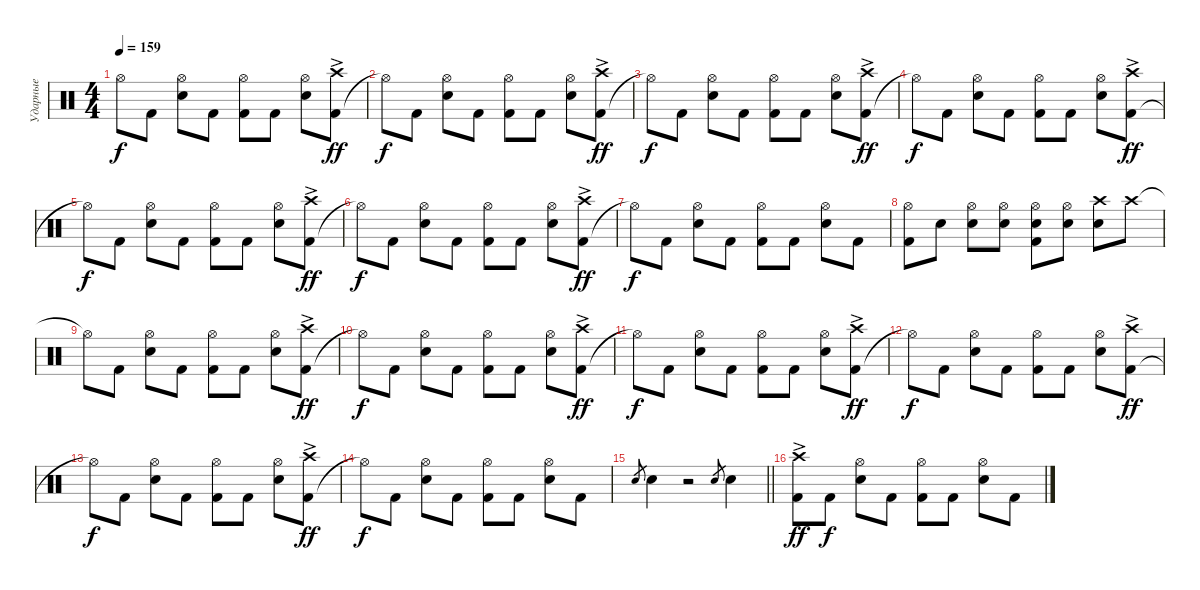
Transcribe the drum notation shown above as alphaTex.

\track ("Ударные" "Ударные") {instrument percussion}
\staff {score}
\articulation defaults
\ts (4 4)
\tempo 159
\clef neutral
\ks c "Hi-Hat (open)"{t}.8{dy f} "Kick (hit) 2".8
("Snare (hit) 2" "Hi-Hat (open)").8 "Kick (hit) 2".8 ("Kick (hit) 2" "Hi-Hat (open)").8 "Kick (hit) 2".8 ("Snare (hit) 2" "Hi-Hat (open)").8 ("Kick (hit) 2" "Crash high (hit)"{ac}).8{dy ff} |
"Hi-Hat (open)"{t}.8{dy f} "Kick (hit) 2".8 ("Snare (hit) 2" "Hi-Hat (open)").8 "Kick (hit) 2".8 ("Kick (hit) 2" "Hi-Hat (open)").8 "Kick (hit) 2".8 ("Snare (hit) 2" "Hi-Hat (open)").8 ("Kick (hit) 2" "Crash high (hit)"{ac}).8{dy ff} |
"Hi-Hat (open)"{t}.8{dy f} "Kick (hit) 2".8 ("Snare (hit) 2" "Hi-Hat (open)").8 "Kick (hit) 2".8 ("Kick (hit) 2" "Hi-Hat (open)").8 "Kick (hit) 2".8 ("Snare (hit) 2" "Hi-Hat (open)").8 ("Kick (hit) 2" "Crash high (hit)"{ac}).8{dy ff} |
"Hi-Hat (open)"{t}.8{dy f} "Kick (hit) 2".8 ("Snare (hit) 2" "Hi-Hat (open)").8 "Kick (hit) 2".8 ("Kick (hit) 2" "Hi-Hat (open)").8 "Kick (hit) 2".8 ("Snare (hit) 2" "Hi-Hat (open)").8 ("Kick (hit) 2" "Crash high (hit)"{ac}).8{dy ff} |
"Hi-Hat (open)"{t}.8{dy f} "Kick (hit) 2".8 ("Snare (hit) 2" "Hi-Hat (open)").8 "Kick (hit) 2".8 ("Kick (hit) 2" "Hi-Hat (open)").8 "Kick (hit) 2".8 ("Snare (hit) 2" "Hi-Hat (open)").8 ("Kick (hit) 2" "Crash high (hit)"{ac}).8{dy ff} |
"Hi-Hat (open)"{t}.8{dy f} "Kick (hit) 2".8 ("Snare (hit) 2" "Hi-Hat (open)").8 "Kick (hit) 2".8 ("Kick (hit) 2" "Hi-Hat (open)").8 "Kick (hit) 2".8 ("Snare (hit) 2" "Hi-Hat (open)").8 ("Kick (hit) 2" "Crash high (hit)"{ac}).8{dy ff} |
"Hi-Hat (open)"{t}.8{dy f} "Kick (hit) 2".8 ("Snare (hit) 2" "Hi-Hat (open)").8 "Kick (hit) 2".8 ("Kick (hit) 2" "Hi-Hat (open)").8 "Kick (hit) 2".8 ("Snare (hit) 2" "Hi-Hat (open)").8 "Kick (hit) 2".8 |
("Kick (hit) 2" "Hi-Hat (open)").8 "Snare (hit) 2".8 ("Snare (hit) 2" "Hi-Hat (open)").8 ("Snare (hit) 2" "Hi-Hat (open)").8 ("Kick (hit) 2" "Snare (hit) 2" "Hi-Hat (open)").8 ("Snare (hit) 2" "Hi-Hat (open)").8 ("Snare (hit) 2" "Crash high (hit)").8 "Crash high (hit)".8 |
"Hi-Hat (open)"{t}.8 "Kick (hit) 2".8 ("Snare (hit) 2" "Hi-Hat (open)").8 "Kick (hit) 2".8 ("Kick (hit) 2" "Hi-Hat (open)").8 "Kick (hit) 2".8 ("Snare (hit) 2" "Hi-Hat (open)").8 ("Kick (hit) 2" "Crash high (hit)"{ac}).8{dy ff} |
"Hi-Hat (open)"{t}.8{dy f} "Kick (hit) 2".8 ("Snare (hit) 2" "Hi-Hat (open)").8 "Kick (hit) 2".8 ("Kick (hit) 2" "Hi-Hat (open)").8 "Kick (hit) 2".8 ("Snare (hit) 2" "Hi-Hat (open)").8 ("Kick (hit) 2" "Crash high (hit)"{ac}).8{dy ff} |
"Hi-Hat (open)"{t}.8{dy f} "Kick (hit) 2".8 ("Snare (hit) 2" "Hi-Hat (open)").8 "Kick (hit) 2".8 ("Kick (hit) 2" "Hi-Hat (open)").8 "Kick (hit) 2".8 ("Snare (hit) 2" "Hi-Hat (open)").8 ("Kick (hit) 2" "Crash high (hit)"{ac}).8{dy ff} |
"Hi-Hat (open)"{t}.8{dy f} "Kick (hit) 2".8 ("Snare (hit) 2" "Hi-Hat (open)").8 "Kick (hit) 2".8 ("Kick (hit) 2" "Hi-Hat (open)").8 "Kick (hit) 2".8 ("Snare (hit) 2" "Hi-Hat (open)").8 ("Kick (hit) 2" "Crash high (hit)"{ac}).8{dy ff} |
"Hi-Hat (open)"{t}.8{dy f} "Kick (hit) 2".8 ("Snare (hit) 2" "Hi-Hat (open)").8 "Kick (hit) 2".8 ("Kick (hit) 2" "Hi-Hat (open)").8 "Kick (hit) 2".8 ("Snare (hit) 2" "Hi-Hat (open)").8 ("Kick (hit) 2" "Crash high (hit)"{ac}).8{dy ff} |
"Hi-Hat (open)"{t}.8{dy f} "Kick (hit) 2".8 ("Snare (hit) 2" "Hi-Hat (open)").8 "Kick (hit) 2".8 ("Kick (hit) 2" "Hi-Hat (open)").8 "Kick (hit) 2".8 ("Snare (hit) 2" "Hi-Hat (open)").8 "Kick (hit) 2".8 |
\barLineRight lightlight "Snare (hit) 2".8{gr} "Snare (hit) 2".4
r.2 "Snare (hit) 2".8{gr} "Snare (hit) 2".4 |
("Kick (hit) 2" "Crash high (hit)"{ac}).8{dy ff} "Kick (hit) 2".8{dy f} ("Snare (hit) 2" "Hi-Hat (open)").8 "Kick (hit) 2".8 ("Kick (hit) 2" "Hi-Hat (open)").8 "Kick (hit) 2".8 ("Snare (hit) 2" "Hi-Hat (open)").8 "Kick (hit) 2".8
